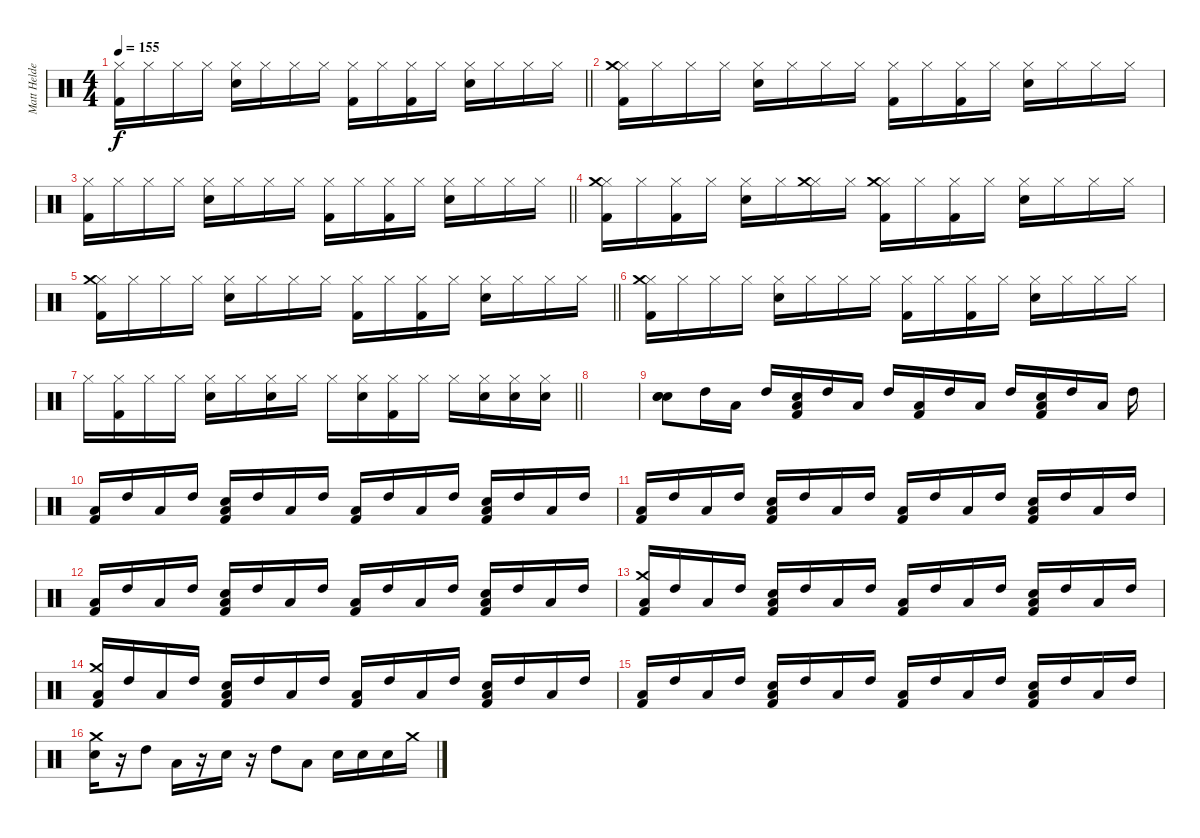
\track ("Matt Helders" "Matt Helde") {instrument percussion}
\staff {score}
\articulation defaults
\ts (4 4)
\tempo 155
\clef neutral
\barLineRight lightlight
\ks c
("Hi-Hat (closed)" "Kick (hit) 2").16{dy f} "Hi-Hat (closed)".16 "Hi-Hat (closed)".16 "Hi-Hat (closed)".16 ("Hi-Hat (closed)" "Snare (hit) 2").16 "Hi-Hat (closed)".16 "Hi-Hat (closed)".16 "Hi-Hat (closed)".16 ("Hi-Hat (closed)" "Kick (hit) 2").16 "Hi-Hat (closed)".16 ("Hi-Hat (closed)" "Kick (hit) 2").16 "Hi-Hat (closed)".16 ("Hi-Hat (closed)" "Snare (hit) 2").16 "Hi-Hat (closed)".16 "Hi-Hat (closed)".16 "Hi-Hat (closed)".16 |
("Hi-Hat (closed)" "Kick (hit) 2" "Crash medium (hit)").16 "Hi-Hat (closed)".16 "Hi-Hat (closed)".16 "Hi-Hat (closed)".16 ("Hi-Hat (closed)" "Snare (hit) 2").16 "Hi-Hat (closed)".16 "Hi-Hat (closed)".16 "Hi-Hat (closed)".16 ("Hi-Hat (closed)" "Kick (hit) 2").16 "Hi-Hat (closed)".16 ("Hi-Hat (closed)" "Kick (hit) 2").16 "Hi-Hat (closed)".16 ("Hi-Hat (closed)" "Snare (hit) 2").16 "Hi-Hat (closed)".16 "Hi-Hat (closed)".16 "Hi-Hat (closed)".16 |
\barLineRight lightlight
("Hi-Hat (closed)" "Kick (hit) 2").16 "Hi-Hat (closed)".16 "Hi-Hat (closed)".16 "Hi-Hat (closed)".16 ("Hi-Hat (closed)" "Snare (hit) 2").16 "Hi-Hat (closed)".16 "Hi-Hat (closed)".16 "Hi-Hat (closed)".16 ("Hi-Hat (closed)" "Kick (hit) 2").16 "Hi-Hat (closed)".16 ("Hi-Hat (closed)" "Kick (hit) 2").16 "Hi-Hat (closed)".16 ("Hi-Hat (closed)" "Snare (hit) 2").16 "Hi-Hat (closed)".16 "Hi-Hat (closed)".16 "Hi-Hat (closed)".16 |
("Hi-Hat (closed)" "Kick (hit) 2" "Crash medium (hit)").16 "Hi-Hat (closed)".16 ("Hi-Hat (closed)" "Kick (hit) 2").16 "Hi-Hat (closed)".16 ("Hi-Hat (closed)" "Snare (hit) 2").16 "Hi-Hat (closed)".16 ("Hi-Hat (closed)" "Crash medium (hit)").16 "Hi-Hat (closed)".16 ("Hi-Hat (closed)" "Kick (hit) 2" "Crash medium (hit)").16 "Hi-Hat (closed)".16 ("Hi-Hat (closed)" "Kick (hit) 2").16 "Hi-Hat (closed)".16 ("Hi-Hat (closed)" "Snare (hit) 2").16 "Hi-Hat (closed)".16 "Hi-Hat (closed)".16 "Hi-Hat (closed)".16 |
\barLineRight lightlight
("Hi-Hat (closed)" "Kick (hit) 2" "Crash medium (hit)").16 "Hi-Hat (closed)".16 "Hi-Hat (closed)".16 "Hi-Hat (closed)".16 ("Hi-Hat (closed)" "Snare (hit) 2").16 "Hi-Hat (closed)".16 "Hi-Hat (closed)".16 "Hi-Hat (closed)".16 ("Hi-Hat (closed)" "Kick (hit) 2").16 "Hi-Hat (closed)".16 ("Hi-Hat (closed)" "Kick (hit) 2").16 "Hi-Hat (closed)".16 ("Hi-Hat (closed)" "Snare (hit) 2").16 "Hi-Hat (closed)".16 "Hi-Hat (closed)".16 "Hi-Hat (closed)".16 |
("Hi-Hat (closed)" "Kick (hit) 2" "Crash medium (hit)").16 "Hi-Hat (closed)".16 "Hi-Hat (closed)".16 "Hi-Hat (closed)".16 ("Hi-Hat (closed)" "Snare (hit) 2").16 "Hi-Hat (closed)".16 "Hi-Hat (closed)".16 "Hi-Hat (closed)".16 ("Hi-Hat (closed)" "Kick (hit) 2").16 "Hi-Hat (closed)".16 ("Hi-Hat (closed)" "Kick (hit) 2").16 "Hi-Hat (closed)".16 ("Hi-Hat (closed)" "Snare (hit) 2").16 "Hi-Hat (closed)".16 "Hi-Hat (closed)".16 "Hi-Hat (closed)".16 |
\barLineRight lightlight "Hi-Hat (closed)".16
("Hi-Hat (closed)" "Kick (hit) 2").16 "Hi-Hat (closed)".16 "Hi-Hat (closed)".16 ("Hi-Hat (closed)" "Snare (hit) 2").16 "Hi-Hat (closed)".16 ("Hi-Hat (closed)" "Snare (hit) 2").16 "Hi-Hat (closed)".16 "Hi-Hat (closed)".16 ("Hi-Hat (closed)" "Snare (hit) 2").16 ("Hi-Hat (closed)" "Kick (hit) 2").16 "Hi-Hat (closed)".16 "Hi-Hat (closed)".16 ("Hi-Hat (closed)" "Snare (hit) 2").16 ("Hi-Hat (closed)" "Snare (hit) 2").16 ("Hi-Hat (closed)" "Snare (hit) 2").16 |
|
("Snare (hit) 2" "Snare (hit) 2" "Snare (hit) 2").8 "High Tom (hit)".16 "Low Tom (hit)".16 "High Tom (hit)".16 ("Low Tom (hit)" "Kick (hit) 2" "Snare (hit) 2").16 "High Tom (hit)".16 "Low Tom (hit)".16 "High Tom (hit)".16 ("Low Tom (hit)" "Kick (hit) 2").16 "High Tom (hit)".16 "Low Tom (hit)".16 "High Tom (hit)".16 ("Low Tom (hit)" "Kick (hit) 2" "Snare (hit) 2").16 "High Tom (hit)".16 "Low Tom (hit)".16 "High Tom (hit)".16 |
("Low Tom (hit)" "Kick (hit) 2").16 "High Tom (hit)".16 "Low Tom (hit)".16 "High Tom (hit)".16 ("Low Tom (hit)" "Kick (hit) 2" "Snare (hit) 2").16 "High Tom (hit)".16 "Low Tom (hit)".16 "High Tom (hit)".16 ("Low Tom (hit)" "Kick (hit) 2").16 "High Tom (hit)".16 "Low Tom (hit)".16 "High Tom (hit)".16 ("Low Tom (hit)" "Kick (hit) 2" "Snare (hit) 2").16 "High Tom (hit)".16 "Low Tom (hit)".16 "High Tom (hit)".16 |
("Low Tom (hit)" "Kick (hit) 2").16 "High Tom (hit)".16 "Low Tom (hit)".16 "High Tom (hit)".16 ("Low Tom (hit)" "Kick (hit) 2" "Snare (hit) 2").16 "High Tom (hit)".16 "Low Tom (hit)".16 "High Tom (hit)".16 ("Low Tom (hit)" "Kick (hit) 2").16 "High Tom (hit)".16 "Low Tom (hit)".16 "High Tom (hit)".16 ("Low Tom (hit)" "Kick (hit) 2" "Snare (hit) 2").16 "High Tom (hit)".16 "Low Tom (hit)".16 "High Tom (hit)".16 |
("Low Tom (hit)" "Kick (hit) 2").16 "High Tom (hit)".16 "Low Tom (hit)".16 "High Tom (hit)".16 ("Low Tom (hit)" "Kick (hit) 2" "Snare (hit) 2").16 "High Tom (hit)".16 "Low Tom (hit)".16 "High Tom (hit)".16 ("Low Tom (hit)" "Kick (hit) 2").16 "High Tom (hit)".16 "Low Tom (hit)".16 "High Tom (hit)".16 ("Low Tom (hit)" "Kick (hit) 2" "Snare (hit) 2").16 "High Tom (hit)".16 "Low Tom (hit)".16 "High Tom (hit)".16 |
("Low Tom (hit)" "Kick (hit) 2" "Crash medium (hit)").16 "High Tom (hit)".16 "Low Tom (hit)".16 "High Tom (hit)".16 ("Low Tom (hit)" "Kick (hit) 2" "Snare (hit) 2").16 "High Tom (hit)".16 "Low Tom (hit)".16 "High Tom (hit)".16 ("Low Tom (hit)" "Kick (hit) 2").16 "High Tom (hit)".16 "Low Tom (hit)".16 "High Tom (hit)".16 ("Low Tom (hit)" "Kick (hit) 2" "Snare (hit) 2").16 "High Tom (hit)".16 "Low Tom (hit)".16 "High Tom (hit)".16 |
("Low Tom (hit)" "Kick (hit) 2" "Crash medium (hit)").16 "High Tom (hit)".16 "Low Tom (hit)".16 "High Tom (hit)".16 ("Low Tom (hit)" "Kick (hit) 2" "Snare (hit) 2").16 "High Tom (hit)".16 "Low Tom (hit)".16 "High Tom (hit)".16 ("Low Tom (hit)" "Kick (hit) 2").16 "High Tom (hit)".16 "Low Tom (hit)".16 "High Tom (hit)".16 ("Low Tom (hit)" "Kick (hit) 2" "Snare (hit) 2").16 "High Tom (hit)".16 "Low Tom (hit)".16 "High Tom (hit)".16 |
("Low Tom (hit)" "Kick (hit) 2").16 "High Tom (hit)".16 "Low Tom (hit)".16 "High Tom (hit)".16 ("Low Tom (hit)" "Kick (hit) 2" "Snare (hit) 2").16 "High Tom (hit)".16 "Low Tom (hit)".16 "High Tom (hit)".16 ("Low Tom (hit)" "Kick (hit) 2").16 "High Tom (hit)".16 "Low Tom (hit)".16 "High Tom (hit)".16 ("Low Tom (hit)" "Kick (hit) 2" "Snare (hit) 2").16 "High Tom (hit)".16 "Low Tom (hit)".16 "High Tom (hit)".16 |
("Snare (hit) 2" "Crash medium (hit)").16 r.16 "High Tom (hit)".8 "Low Tom (hit)".16 r.16 "Snare (hit) 2".16 r.16 "High Tom (hit)".8 "Low Tom (hit)".8 "Snare (hit) 2".16 "Snare (hit) 2".16 "Snare (hit) 2".16 "Crash medium (hit)".16
